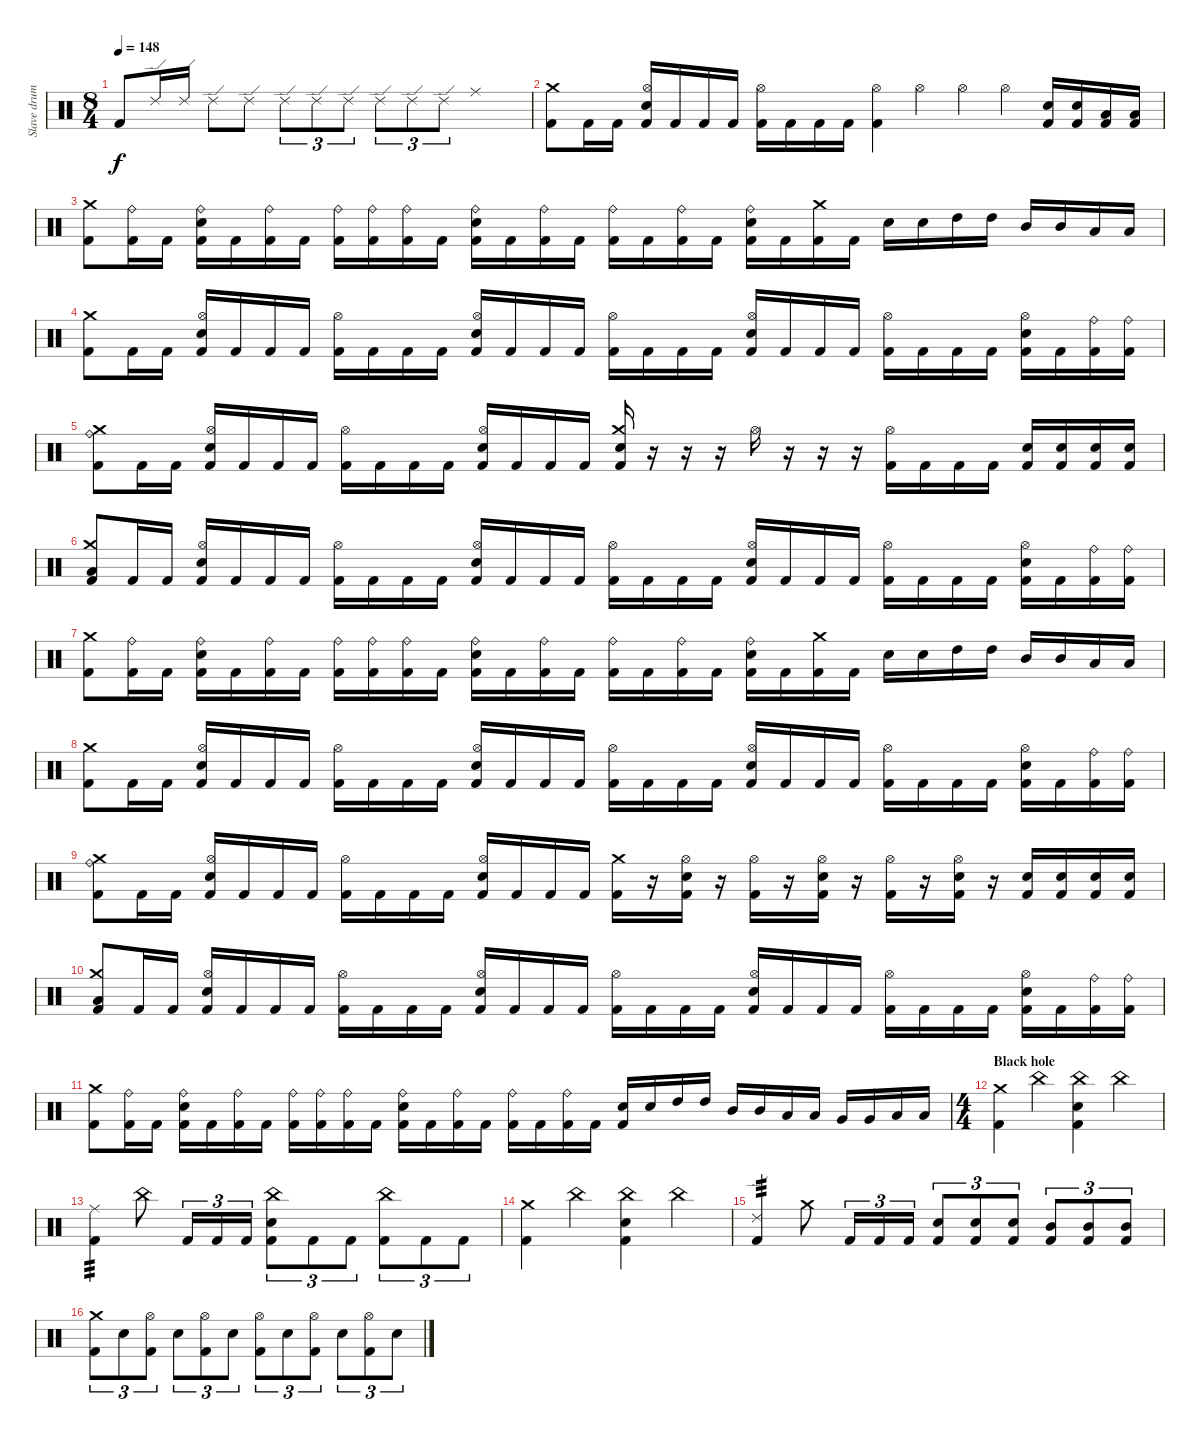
\track ("Slave drum" "Slave drum") {instrument percussion}
\staff {score}
\articulation defaults
\ts (8 4)
\tempo 148
\clef neutral
\ks c "Kick (hit) 2".8{dy f} "Ride (edge) 2".16 "Ride (edge) 2".16 "Ride (edge) 2".8 "Ride (edge) 2".8 "Ride (edge) 2".8{tu (3 2)} "Ride (edge) 2".8{tu (3 2)} "Ride (edge) 2".8{tu (3 2)} "Ride (edge) 2".8{tu (3 2)} "Ride (edge) 2".8{tu (3 2)} "Ride (edge) 2".8{tu (3 2)} "Ride (middle)".1
|
("Crash medium (hit)" "Kick (hit) 2").8 "Kick (hit) 2".16 "Kick (hit) 2".16 ("Hi-Hat (open)" "Electric Snare (hit)" "Kick (hit) 2").16 "Kick (hit) 2".16 "Kick (hit) 2".16 "Kick (hit) 2".16 ("Hi-Hat (open)" "Kick (hit) 2").16 "Kick (hit) 2".16 "Kick (hit) 2".16 "Kick (hit) 2".16 ("Hi-Hat (open)" "Kick (hit) 2").4 "Hi-Hat (open)".4 "Hi-Hat (open)".4 "Hi-Hat (open)".4 ("Electric Snare (hit)" "Kick (hit) 2").16 ("Electric Snare (hit)" "Kick (hit) 2").16 ("Low Tom (hit)" "Kick (hit) 2").16 ("Low Tom (hit)" "Kick (hit) 2").16 |
("Crash medium (hit)" "Kick (hit) 2").8 ("Ride (bell)" "Kick (hit) 2").16 "Kick (hit) 2".16 ("Ride (bell)" "Electric Snare (hit)" "Kick (hit) 2").16 "Kick (hit) 2".16 ("Ride (bell)" "Kick (hit) 2").16 "Kick (hit) 2".16 ("Ride (bell)" "Kick (hit) 2").16 ("Ride (bell)" "Kick (hit) 2").16 ("Ride (bell)" "Kick (hit) 2").16 "Kick (hit) 2".16 ("Ride (bell)" "Electric Snare (hit)" "Kick (hit) 2").16 "Kick (hit) 2".16 ("Ride (bell)" "Kick (hit) 2").16 "Kick (hit) 2".16 ("Ride (bell)" "Kick (hit) 2").16 "Kick (hit) 2".16 ("Ride (bell)" "Kick (hit) 2").16 "Kick (hit) 2".16 ("Ride (bell)" "Electric Snare (hit)" "Kick (hit) 2").16 "Kick (hit) 2".16 ("Crash medium (hit)" "Kick (hit) 2").16 "Kick (hit) 2".16 "Electric Snare (hit)".16 "Electric Snare (hit)".16 "High Tom (hit)".16 "High Tom (hit)".16 "Mid Tom (hit)".16 "Mid Tom (hit)".16 "Low Tom (hit)".16 "Low Tom (hit)".16 |
("Crash medium (hit)" "Kick (hit) 2").8 "Kick (hit) 2".16 "Kick (hit) 2".16 ("Hi-Hat (open)" "Electric Snare (hit)" "Kick (hit) 2").16 "Kick (hit) 2".16 "Kick (hit) 2".16 "Kick (hit) 2".16 ("Hi-Hat (open)" "Kick (hit) 2").16 "Kick (hit) 2".16 "Kick (hit) 2".16 "Kick (hit) 2".16 ("Hi-Hat (open)" "Electric Snare (hit)" "Kick (hit) 2").16 "Kick (hit) 2".16 "Kick (hit) 2".16 "Kick (hit) 2".16 ("Hi-Hat (open)" "Kick (hit) 2").16 "Kick (hit) 2".16 "Kick (hit) 2".16 "Kick (hit) 2".16 ("Hi-Hat (open)" "Electric Snare (hit)" "Kick (hit) 2").16 "Kick (hit) 2".16 "Kick (hit) 2".16 "Kick (hit) 2".16 ("Hi-Hat (open)" "Kick (hit) 2").16 "Kick (hit) 2".16 "Kick (hit) 2".16 "Kick (hit) 2".16 ("Hi-Hat (open)" "Electric Snare (hit)" "Kick (hit) 2").16 "Kick (hit) 2".16 ("Ride (bell)" "Kick (hit) 2").16 ("Ride (bell)" "Kick (hit) 2").16 |
("Ride (bell)" "Crash medium (hit)" "Kick (hit) 2").8 "Kick (hit) 2".16 "Kick (hit) 2".16 ("Hi-Hat (open)" "Electric Snare (hit)" "Kick (hit) 2").16 "Kick (hit) 2".16 "Kick (hit) 2".16 "Kick (hit) 2".16 ("Hi-Hat (open)" "Kick (hit) 2").16 "Kick (hit) 2".16 "Kick (hit) 2".16 "Kick (hit) 2".16 ("Hi-Hat (open)" "Electric Snare (hit)" "Kick (hit) 2").16 "Kick (hit) 2".16 "Kick (hit) 2".16 "Kick (hit) 2".16 ("Crash medium (hit)" "Electric Snare (hit)" "Kick (hit) 2").16 r.16 r.16 r.16 "Hi-Hat (open)".16 r.16 r.16 r.16 ("Hi-Hat (open)" "Kick (hit) 2").16 "Kick (hit) 2".16 "Kick (hit) 2".16 "Kick (hit) 2".16 ("Electric Snare (hit)" "Kick (hit) 2").16 ("Electric Snare (hit)" "Kick (hit) 2").16 ("Electric Snare (hit)" "Kick (hit) 2").16 ("Electric Snare (hit)" "Kick (hit) 2").16 |
("Crash medium (hit)" "Low Tom (hit)" "Kick (hit) 2").8 "Kick (hit) 2".16 "Kick (hit) 2".16 ("Hi-Hat (open)" "Electric Snare (hit)" "Kick (hit) 2").16 "Kick (hit) 2".16 "Kick (hit) 2".16 "Kick (hit) 2".16 ("Hi-Hat (open)" "Kick (hit) 2").16 "Kick (hit) 2".16 "Kick (hit) 2".16 "Kick (hit) 2".16 ("Hi-Hat (open)" "Electric Snare (hit)" "Kick (hit) 2").16 "Kick (hit) 2".16 "Kick (hit) 2".16 "Kick (hit) 2".16 ("Hi-Hat (open)" "Kick (hit) 2").16 "Kick (hit) 2".16 "Kick (hit) 2".16 "Kick (hit) 2".16 ("Hi-Hat (open)" "Electric Snare (hit)" "Kick (hit) 2").16 "Kick (hit) 2".16 "Kick (hit) 2".16 "Kick (hit) 2".16 ("Hi-Hat (open)" "Kick (hit) 2").16 "Kick (hit) 2".16 "Kick (hit) 2".16 "Kick (hit) 2".16 ("Hi-Hat (open)" "Electric Snare (hit)" "Kick (hit) 2").16 "Kick (hit) 2".16 ("Ride (bell)" "Kick (hit) 2").16 ("Ride (bell)" "Kick (hit) 2").16 |
("Crash medium (hit)" "Kick (hit) 2").8 ("Ride (bell)" "Kick (hit) 2").16 "Kick (hit) 2".16 ("Ride (bell)" "Electric Snare (hit)" "Kick (hit) 2").16 "Kick (hit) 2".16 ("Ride (bell)" "Kick (hit) 2").16 "Kick (hit) 2".16 ("Ride (bell)" "Kick (hit) 2").16 ("Ride (bell)" "Kick (hit) 2").16 ("Ride (bell)" "Kick (hit) 2").16 "Kick (hit) 2".16 ("Ride (bell)" "Electric Snare (hit)" "Kick (hit) 2").16 "Kick (hit) 2".16 ("Ride (bell)" "Kick (hit) 2").16 "Kick (hit) 2".16 ("Ride (bell)" "Kick (hit) 2").16 "Kick (hit) 2".16 ("Ride (bell)" "Kick (hit) 2").16 "Kick (hit) 2".16 ("Ride (bell)" "Electric Snare (hit)" "Kick (hit) 2").16 "Kick (hit) 2".16 ("Crash medium (hit)" "Kick (hit) 2").16 "Kick (hit) 2".16 "Electric Snare (hit)".16 "Electric Snare (hit)".16 "High Tom (hit)".16 "High Tom (hit)".16 "Mid Tom (hit)".16 "Mid Tom (hit)".16 "Low Tom (hit)".16 "Low Tom (hit)".16 |
("Crash medium (hit)" "Kick (hit) 2").8 "Kick (hit) 2".16 "Kick (hit) 2".16 ("Hi-Hat (open)" "Electric Snare (hit)" "Kick (hit) 2").16 "Kick (hit) 2".16 "Kick (hit) 2".16 "Kick (hit) 2".16 ("Hi-Hat (open)" "Kick (hit) 2").16 "Kick (hit) 2".16 "Kick (hit) 2".16 "Kick (hit) 2".16 ("Hi-Hat (open)" "Electric Snare (hit)" "Kick (hit) 2").16 "Kick (hit) 2".16 "Kick (hit) 2".16 "Kick (hit) 2".16 ("Hi-Hat (open)" "Kick (hit) 2").16 "Kick (hit) 2".16 "Kick (hit) 2".16 "Kick (hit) 2".16 ("Hi-Hat (open)" "Electric Snare (hit)" "Kick (hit) 2").16 "Kick (hit) 2".16 "Kick (hit) 2".16 "Kick (hit) 2".16 ("Hi-Hat (open)" "Kick (hit) 2").16 "Kick (hit) 2".16 "Kick (hit) 2".16 "Kick (hit) 2".16 ("Hi-Hat (open)" "Electric Snare (hit)" "Kick (hit) 2").16 "Kick (hit) 2".16 ("Ride (bell)" "Kick (hit) 2").16 ("Ride (bell)" "Kick (hit) 2").16 |
("Ride (bell)" "Crash medium (hit)" "Kick (hit) 2").8 "Kick (hit) 2".16 "Kick (hit) 2".16 ("Hi-Hat (open)" "Electric Snare (hit)" "Kick (hit) 2").16 "Kick (hit) 2".16 "Kick (hit) 2".16 "Kick (hit) 2".16 ("Hi-Hat (open)" "Kick (hit) 2").16 "Kick (hit) 2".16 "Kick (hit) 2".16 "Kick (hit) 2".16 ("Hi-Hat (open)" "Electric Snare (hit)" "Kick (hit) 2").16 "Kick (hit) 2".16 "Kick (hit) 2".16 "Kick (hit) 2".16 ("Crash medium (hit)" "Kick (hit) 2").16 r.16 ("Hi-Hat (open)" "Electric Snare (hit)" "Kick (hit) 2").16 r.16 ("Hi-Hat (open)" "Kick (hit) 2").16 r.16 ("Hi-Hat (open)" "Electric Snare (hit)" "Kick (hit) 2").16 r.16 ("Hi-Hat (open)" "Kick (hit) 2").16 r.16 ("Hi-Hat (open)" "Electric Snare (hit)" "Kick (hit) 2").16 r.16 ("Electric Snare (hit)" "Kick (hit) 2").16 ("Electric Snare (hit)" "Kick (hit) 2").16 ("Electric Snare (hit)" "Kick (hit) 2").16 ("Electric Snare (hit)" "Kick (hit) 2").16 |
("Crash medium (hit)" "Low Tom (hit)" "Kick (hit) 2").8 "Kick (hit) 2".16 "Kick (hit) 2".16 ("Hi-Hat (open)" "Electric Snare (hit)" "Kick (hit) 2").16 "Kick (hit) 2".16 "Kick (hit) 2".16 "Kick (hit) 2".16 ("Hi-Hat (open)" "Kick (hit) 2").16 "Kick (hit) 2".16 "Kick (hit) 2".16 "Kick (hit) 2".16 ("Hi-Hat (open)" "Electric Snare (hit)" "Kick (hit) 2").16 "Kick (hit) 2".16 "Kick (hit) 2".16 "Kick (hit) 2".16 ("Hi-Hat (open)" "Kick (hit) 2").16 "Kick (hit) 2".16 "Kick (hit) 2".16 "Kick (hit) 2".16 ("Hi-Hat (open)" "Electric Snare (hit)" "Kick (hit) 2").16 "Kick (hit) 2".16 "Kick (hit) 2".16 "Kick (hit) 2".16 ("Hi-Hat (open)" "Kick (hit) 2").16 "Kick (hit) 2".16 "Kick (hit) 2".16 "Kick (hit) 2".16 ("Hi-Hat (open)" "Electric Snare (hit)" "Kick (hit) 2").16 "Kick (hit) 2".16 ("Ride (bell)" "Kick (hit) 2").16 ("Ride (bell)" "Kick (hit) 2").16 |
("Crash medium (hit)" "Kick (hit) 2").8 ("Ride (bell)" "Kick (hit) 2").16 "Kick (hit) 2".16 ("Ride (bell)" "Electric Snare (hit)" "Kick (hit) 2").16 "Kick (hit) 2".16 ("Ride (bell)" "Kick (hit) 2").16 "Kick (hit) 2".16 ("Ride (bell)" "Kick (hit) 2").16 ("Ride (bell)" "Kick (hit) 2").16 ("Ride (bell)" "Kick (hit) 2").16 "Kick (hit) 2".16 ("Ride (bell)" "Electric Snare (hit)" "Kick (hit) 2").16 "Kick (hit) 2".16 ("Ride (bell)" "Kick (hit) 2").16 "Kick (hit) 2".16 ("Ride (bell)" "Kick (hit) 2").16 "Kick (hit) 2".16 ("Ride (bell)" "Kick (hit) 2").16 "Kick (hit) 2".16 ("Electric Snare (hit)" "Kick (hit) 2").16 "Electric Snare (hit)".16 "High Tom (hit)".16 "High Tom (hit)".16 "Mid Tom (hit)".16 "Mid Tom (hit)".16 "Low Tom (hit)".16 "Low Tom (hit)".16 "Very Low Tom (hit)".16 "Very Low Tom (hit)".16 "Low Floor Tom (hit)".16 "Low Floor Tom (hit)".16 |
\ts (4 4)
\section ("" "Black hole")
("Crash medium (hit)" "Kick (hit) 2").4 "China (hit)".4 ("China (hit)" "Electric Snare (hit)" "Kick (hit) 2").4 "China (hit)".4 |
("Ride (middle)" "Kick (hit) 2").4{tp 3} "China (hit)".8 "Kick (hit) 2".16{tu (3 2)} "Kick (hit) 2".16{tu (3 2)} "Kick (hit) 2".16{tu (3 2)} ("China (hit)" "Electric Snare (hit)" "Kick (hit) 2").8{tu (3 2)} "Kick (hit) 2".8{tu (3 2)} "Kick (hit) 2".8{tu (3 2)} ("China (hit)" "Kick (hit) 2").8{tu (3 2)} "Kick (hit) 2".8{tu (3 2)} "Kick (hit) 2".8{tu (3 2)} |
("Crash medium (hit)" "Kick (hit) 2").4 "China (hit)".4 ("China (hit)" "Electric Snare (hit)" "Kick (hit) 2").4 "China (hit)".4 |
("Ride (edge) 2" "Kick (hit) 2").4{tp 3} "Crash medium (hit)".8 "Kick (hit) 2".16{tu (3 2)} "Kick (hit) 2".16{tu (3 2)} "Kick (hit) 2".16{tu (3 2)} ("Electric Snare (hit)" "Kick (hit) 2").8{tu (3 2)} ("Electric Snare (hit)" "Kick (hit) 2").8{tu (3 2)} ("Electric Snare (hit)" "Kick (hit) 2").8{tu (3 2)} ("Mid Tom (hit)" "Kick (hit) 2").8{tu (3 2)} ("Mid Tom (hit)" "Kick (hit) 2").8{tu (3 2)} ("Mid Tom (hit)" "Kick (hit) 2").8{tu (3 2)} |
("Crash medium (hit)" "Kick (hit) 2").8{tu (3 2)} "Electric Snare (hit)".8{tu (3 2)} ("Hi-Hat (open)" "Kick (hit) 2").8{tu (3 2)} "Electric Snare (hit)".8{tu (3 2)} ("Hi-Hat (open)" "Kick (hit) 2").8{tu (3 2)} "Electric Snare (hit)".8{tu (3 2)} ("Hi-Hat (open)" "Kick (hit) 2").8{tu (3 2)} "Electric Snare (hit)".8{tu (3 2)} ("Hi-Hat (open)" "Kick (hit) 2").8{tu (3 2)} "Electric Snare (hit)".8{tu (3 2)} ("Hi-Hat (open)" "Kick (hit) 2").8{tu (3 2)} "Electric Snare (hit)".8{tu (3 2)}
